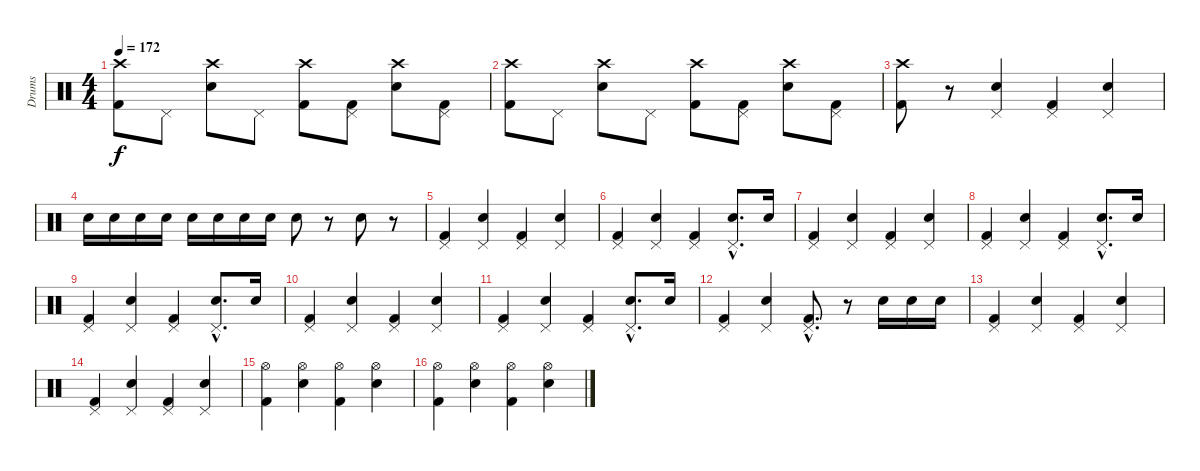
\track ("Drums" "Drums") {instrument percussion}
\staff {score}
\articulation defaults
\ts (4 4)
\tempo 172
\clef neutral
\ks c
("Crash high (hit)" "Kick (hit) 2").8{dy f} "Pedal Hi-Hat (hit)".8 ("Crash high (hit)" "Snare (hit) 2").8 "Pedal Hi-Hat (hit)".8 ("Crash high (hit)" "Kick (hit) 2").8 ("Pedal Hi-Hat (hit)" "Kick (hit) 2").8 ("Crash high (hit)" "Snare (hit) 2").8 ("Pedal Hi-Hat (hit)" "Kick (hit) 2").8 |
("Crash high (hit)" "Kick (hit) 2").8 "Pedal Hi-Hat (hit)".8 ("Crash high (hit)" "Snare (hit) 2").8 "Pedal Hi-Hat (hit)".8 ("Crash high (hit)" "Kick (hit) 2").8 ("Pedal Hi-Hat (hit)" "Kick (hit) 2").8 ("Crash high (hit)" "Snare (hit) 2").8 ("Pedal Hi-Hat (hit)" "Kick (hit) 2").8 |
("Crash high (hit)" "Kick (hit) 2").8 r.8 ("Pedal Hi-Hat (hit)" "Snare (hit) 2").4 ("Pedal Hi-Hat (hit)" "Kick (hit) 2").4 ("Pedal Hi-Hat (hit)" "Snare (hit) 2").4 |
"Snare (hit) 2".16 "Snare (hit) 2".16 "Snare (hit) 2".16 "Snare (hit) 2".16 "Snare (hit) 2".16 "Snare (hit) 2".16 "Snare (hit) 2".16 "Snare (hit) 2".16 "Snare (hit) 2".8 r.8 "Snare (hit) 2".8 r.8 |
("Pedal Hi-Hat (hit)" "Kick (hit) 2").4 ("Pedal Hi-Hat (hit)" "Snare (hit) 2").4 ("Pedal Hi-Hat (hit)" "Kick (hit) 2").4 ("Pedal Hi-Hat (hit)" "Snare (hit) 2").4 |
("Pedal Hi-Hat (hit)" "Kick (hit) 2").4 ("Pedal Hi-Hat (hit)" "Snare (hit) 2").4 ("Pedal Hi-Hat (hit)" "Kick (hit) 2").4 ("Pedal Hi-Hat (hit)"{hac} "Snare (hit) 2"{hac}).8{d} "Electric Snare (hit)".16 |
("Pedal Hi-Hat (hit)" "Kick (hit) 2").4 ("Pedal Hi-Hat (hit)" "Snare (hit) 2").4 ("Pedal Hi-Hat (hit)" "Kick (hit) 2").4 ("Pedal Hi-Hat (hit)" "Snare (hit) 2").4 |
("Pedal Hi-Hat (hit)" "Kick (hit) 2").4 ("Pedal Hi-Hat (hit)" "Snare (hit) 2").4 ("Pedal Hi-Hat (hit)" "Kick (hit) 2").4 ("Pedal Hi-Hat (hit)"{hac} "Snare (hit) 2"{hac}).8{d} "Electric Snare (hit)".16 |
("Pedal Hi-Hat (hit)" "Kick (hit) 2").4 ("Pedal Hi-Hat (hit)" "Snare (hit) 2").4 ("Pedal Hi-Hat (hit)" "Kick (hit) 2").4 ("Pedal Hi-Hat (hit)"{hac} "Snare (hit) 2"{hac}).8{d} "Electric Snare (hit)".16 |
("Pedal Hi-Hat (hit)" "Kick (hit) 2").4 ("Pedal Hi-Hat (hit)" "Snare (hit) 2").4 ("Pedal Hi-Hat (hit)" "Kick (hit) 2").4 ("Pedal Hi-Hat (hit)" "Snare (hit) 2").4 |
("Pedal Hi-Hat (hit)" "Kick (hit) 2").4 ("Pedal Hi-Hat (hit)" "Snare (hit) 2").4 ("Pedal Hi-Hat (hit)" "Kick (hit) 2").4 ("Pedal Hi-Hat (hit)"{hac} "Snare (hit) 2"{hac}).8{d} "Electric Snare (hit)".16 |
("Pedal Hi-Hat (hit)" "Kick (hit) 2").4 ("Pedal Hi-Hat (hit)" "Snare (hit) 2").4 ("Pedal Hi-Hat (hit)"{hac} "Kick (hit) 2"{hac}).8{d} r.8 "Snare (hit) 2".16 "Snare (hit) 2".16 "Snare (hit) 2".16 |
("Pedal Hi-Hat (hit)" "Kick (hit) 2").4 ("Pedal Hi-Hat (hit)" "Snare (hit) 2").4 ("Pedal Hi-Hat (hit)" "Kick (hit) 2").4 ("Pedal Hi-Hat (hit)" "Snare (hit) 2").4 |
("Pedal Hi-Hat (hit)" "Kick (hit) 2").4 ("Pedal Hi-Hat (hit)" "Snare (hit) 2").4 ("Pedal Hi-Hat (hit)" "Kick (hit) 2").4 ("Pedal Hi-Hat (hit)" "Snare (hit) 2").4 |
("Hi-Hat (open)" "Kick (hit) 2").4 ("Hi-Hat (open)" "Snare (hit) 2").4 ("Hi-Hat (open)" "Kick (hit) 2").4 ("Hi-Hat (open)" "Snare (hit) 2").4 |
("Hi-Hat (open)" "Kick (hit) 2").4 ("Hi-Hat (open)" "Snare (hit) 2").4 ("Hi-Hat (open)" "Kick (hit) 2").4 ("Hi-Hat (open)" "Snare (hit) 2").4
